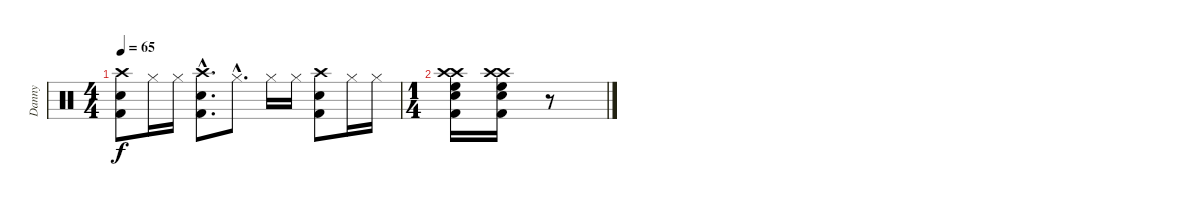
\track ("Danny" "Danny") {instrument percussion}
\staff {score}
\articulation defaults
\ts (4 4)
\tempo 65
\clef neutral
\ks c
("Crash high (hit)" "Snare (hit) 2" "Kick (hit) 2").8{dy f} "Hi-Hat (closed)".16 "Hi-Hat (closed)".16 ("Crash high (hit)"{hac} "Snare (hit) 2"{hac} "Kick (hit) 2"{hac}).8{d} "Hi-Hat (closed)"{hac}.8{d} "Hi-Hat (closed)".16 "Hi-Hat (closed)".16 ("Crash high (hit)" "Snare (hit) 2" "Kick (hit) 2").8 "Hi-Hat (closed)".16 "Hi-Hat (closed)".16 |
\ts (1 4)
("Crash high (hit)" "Crash high (hit)" "High Floor Tom (hit)" "Snare (hit) 2" "Kick (hit) 2").16 ("Crash high (hit)" "Crash high (hit)" "High Floor Tom (hit)" "Snare (hit) 2" "Kick (hit) 2").16 r.8
